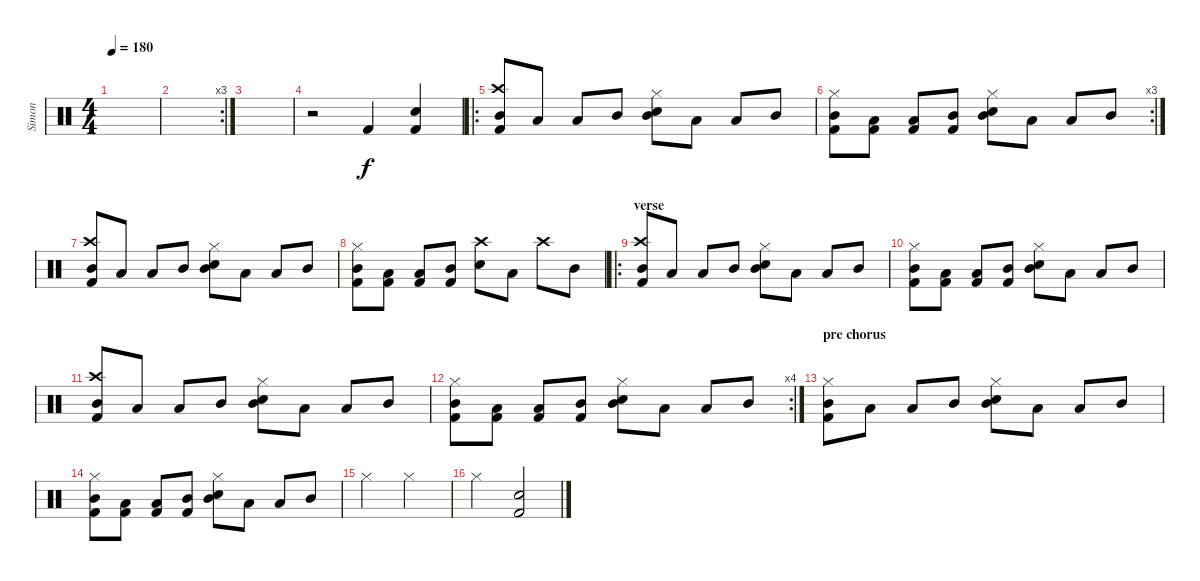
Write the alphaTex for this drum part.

\track ("Simon" "Simon") {instrument percussion}
\staff {score}
\articulation defaults
\ts (4 4)
\tempo 180
\clef neutral
\ks c
|
\rc 3
|
|
r.2 "Kick (hit) 2".4 ("Snare (hit) 2" "Kick (hit) 2").4 |
\ro
("Crash high (hit)" "Mid Tom (hit)" "Kick (hit) 2").8 "Low Tom (hit)".8 "Low Tom (hit)".8 "Mid Tom (hit)".8 ("Hi-Hat (closed)" "Mid Tom (hit)" "Snare (hit) 2").8 "Low Tom (hit)".8 "Low Tom (hit)".8 "Mid Tom (hit)".8 |
\rc 3
("Hi-Hat (closed)" "Mid Tom (hit)" "Kick (hit) 2").8 ("Low Tom (hit)" "Kick (hit) 2").8 ("Low Tom (hit)" "Kick (hit) 2").8 ("Mid Tom (hit)" "Kick (hit) 2").8 ("Hi-Hat (closed)" "Mid Tom (hit)" "Snare (hit) 2").8 "Low Tom (hit)".8 "Low Tom (hit)".8 "Mid Tom (hit)".8 |
("Crash high (hit)" "Mid Tom (hit)" "Kick (hit) 2").8 "Low Tom (hit)".8 "Low Tom (hit)".8 "Mid Tom (hit)".8 ("Hi-Hat (closed)" "Mid Tom (hit)" "Snare (hit) 2").8 "Low Tom (hit)".8 "Low Tom (hit)".8 "Mid Tom (hit)".8 |
("Hi-Hat (closed)" "Mid Tom (hit)" "Kick (hit) 2").8 ("Low Tom (hit)" "Kick (hit) 2").8 ("Low Tom (hit)" "Kick (hit) 2").8 ("Mid Tom (hit)" "Kick (hit) 2").8 ("Crash high (hit)" "Snare (hit) 2").8 "Low Tom (hit)".8 "Crash high (hit)".8 "Mid Tom (hit)".8 |
\ro
\section ("" "verse")
("Crash high (hit)" "Mid Tom (hit)" "Kick (hit) 2").8 "Low Tom (hit)".8 "Low Tom (hit)".8 "Mid Tom (hit)".8 ("Hi-Hat (closed)" "Mid Tom (hit)" "Snare (hit) 2").8 "Low Tom (hit)".8 "Low Tom (hit)".8 "Mid Tom (hit)".8 |
("Hi-Hat (closed)" "Mid Tom (hit)" "Kick (hit) 2").8 ("Low Tom (hit)" "Kick (hit) 2").8 ("Low Tom (hit)" "Kick (hit) 2").8 ("Mid Tom (hit)" "Kick (hit) 2").8 ("Hi-Hat (closed)" "Mid Tom (hit)" "Snare (hit) 2").8 "Low Tom (hit)".8 "Low Tom (hit)".8 "Mid Tom (hit)".8 |
("Crash high (hit)" "Mid Tom (hit)" "Kick (hit) 2").8 "Low Tom (hit)".8 "Low Tom (hit)".8 "Mid Tom (hit)".8 ("Hi-Hat (closed)" "Mid Tom (hit)" "Snare (hit) 2").8 "Low Tom (hit)".8 "Low Tom (hit)".8 "Mid Tom (hit)".8 |
\rc 4
("Hi-Hat (closed)" "Mid Tom (hit)" "Kick (hit) 2").8 ("Low Tom (hit)" "Kick (hit) 2").8 ("Low Tom (hit)" "Kick (hit) 2").8 ("Mid Tom (hit)" "Kick (hit) 2").8 ("Hi-Hat (closed)" "Mid Tom (hit)" "Snare (hit) 2").8 "Low Tom (hit)".8 "Low Tom (hit)".8 "Mid Tom (hit)".8 |
\section ("" "pre chorus")
("Hi-Hat (closed)" "Mid Tom (hit)" "Kick (hit) 2").8 "Low Tom (hit)".8 "Low Tom (hit)".8 "Mid Tom (hit)".8 ("Hi-Hat (closed)" "Mid Tom (hit)" "Snare (hit) 2").8 "Low Tom (hit)".8 "Low Tom (hit)".8 "Mid Tom (hit)".8 |
("Hi-Hat (closed)" "Mid Tom (hit)" "Kick (hit) 2").8 ("Low Tom (hit)" "Kick (hit) 2").8 ("Low Tom (hit)" "Kick (hit) 2").8 ("Mid Tom (hit)" "Kick (hit) 2").8 ("Hi-Hat (closed)" "Mid Tom (hit)" "Snare (hit) 2").8 "Low Tom (hit)".8 "Low Tom (hit)".8 "Mid Tom (hit)".8 |
"Hi-Hat (closed)".2 "Hi-Hat (closed)".2 |
"Hi-Hat (closed)".2 ("Snare (hit) 2" "Kick (hit) 2").2
